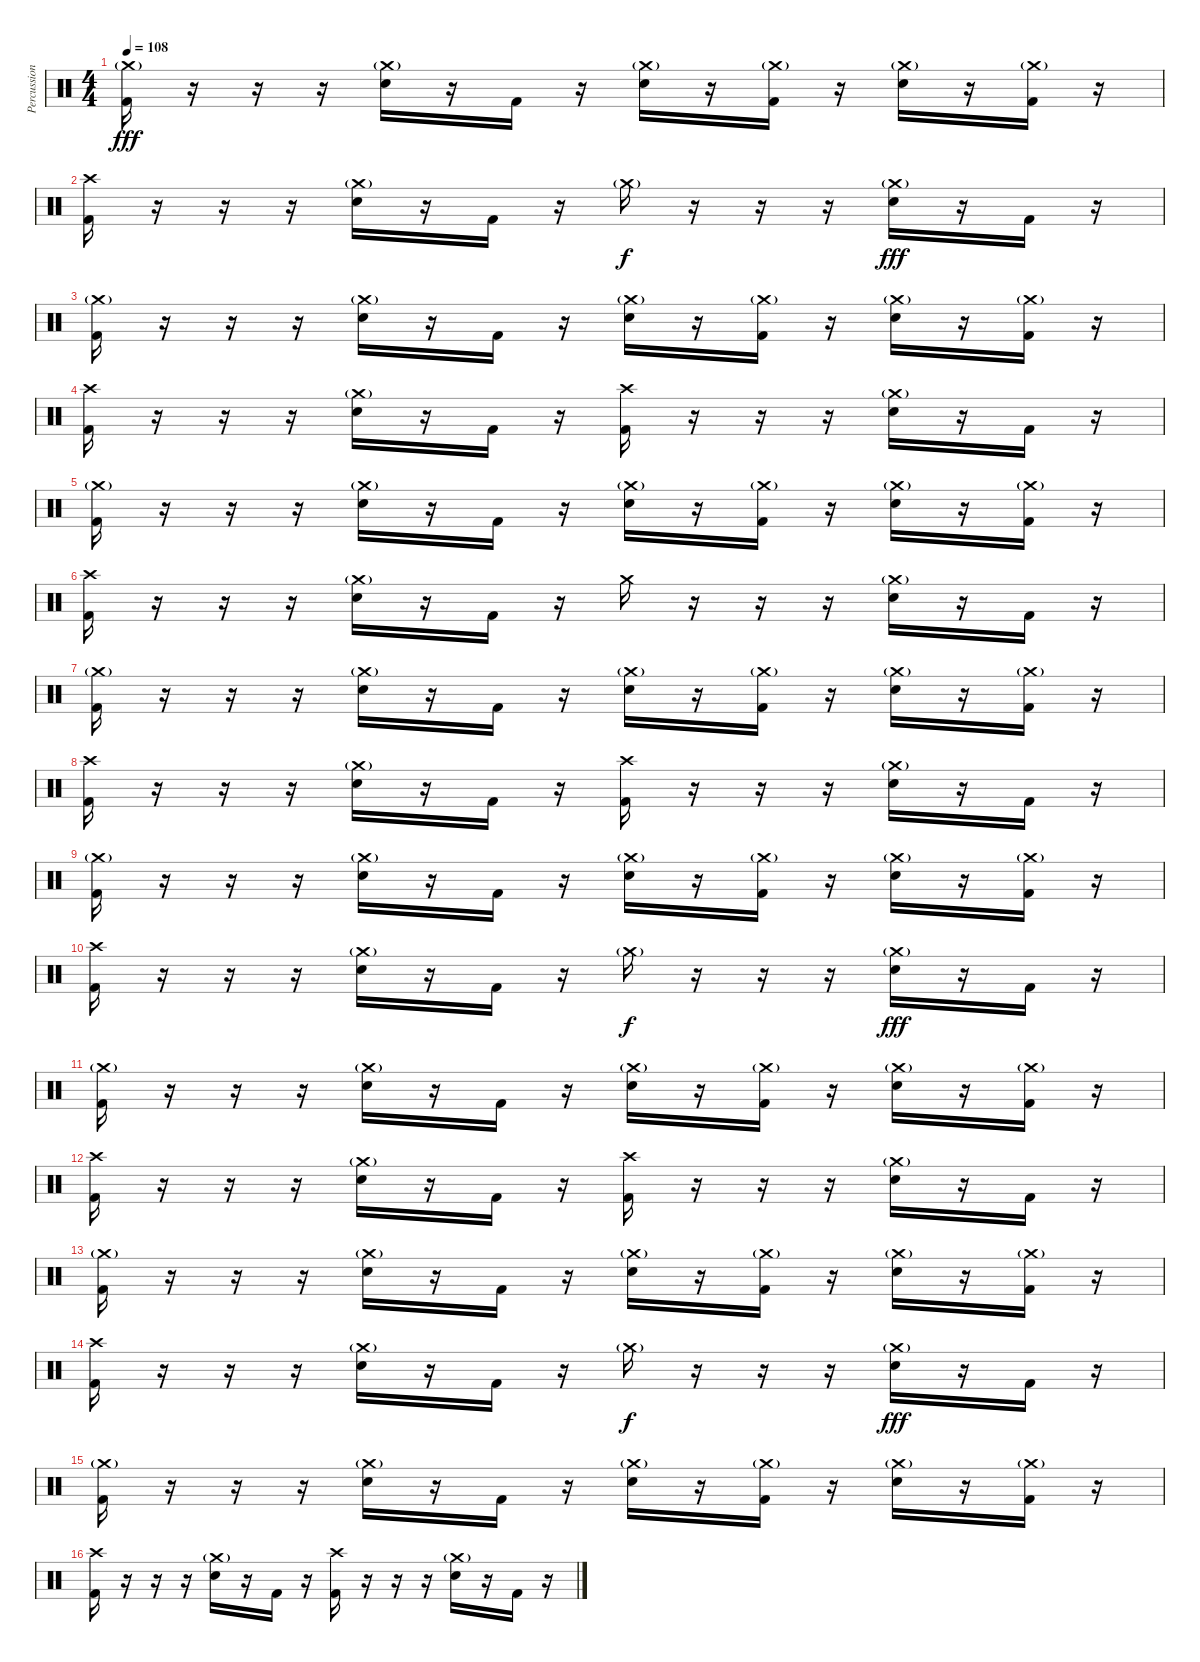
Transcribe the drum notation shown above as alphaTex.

\track ("Percussion" "Percussion") {instrument percussion}
\staff {score}
\articulation defaults
\ts (4 4)
\tempo 108
\clef neutral
\ks c
("Crash medium (hit)"{g} "Kick (hit) 2").16{dy fff} r.16 r.16 r.16 ("Crash medium (hit)"{g} "Electric Snare (hit)").16 r.16 "Kick (hit) 2".16 r.16 ("Crash medium (hit)"{g} "Electric Snare (hit)").16 r.16 ("Crash medium (hit)"{g} "Kick (hit) 2").16 r.16 ("Crash medium (hit)"{g} "Electric Snare (hit)").16 r.16 ("Crash medium (hit)"{g} "Kick (hit) 2").16 r.16 |
("Crash high (hit)" "Kick (hit) 2").16 r.16 r.16 r.16 ("Crash medium (hit)"{g} "Electric Snare (hit)").16 r.16 "Kick (hit) 2".16 r.16 "Crash medium (hit)"{g}.16{dy f} r.16 r.16 r.16 ("Crash medium (hit)"{g} "Electric Snare (hit)").16{dy fff} r.16 "Kick (hit) 2".16 r.16 |
("Crash medium (hit)"{g} "Kick (hit) 2").16 r.16 r.16 r.16 ("Crash medium (hit)"{g} "Electric Snare (hit)").16 r.16 "Kick (hit) 2".16 r.16 ("Crash medium (hit)"{g} "Electric Snare (hit)").16 r.16 ("Crash medium (hit)"{g} "Kick (hit) 2").16 r.16 ("Crash medium (hit)"{g} "Electric Snare (hit)").16 r.16 ("Crash medium (hit)"{g} "Kick (hit) 2").16 r.16 |
("Crash high (hit)" "Kick (hit) 2").16 r.16 r.16 r.16 ("Crash medium (hit)"{g} "Electric Snare (hit)").16 r.16 "Kick (hit) 2".16 r.16 ("Crash high (hit)" "Kick (hit) 2").16 r.16 r.16 r.16 ("Crash medium (hit)"{g} "Electric Snare (hit)").16 r.16 "Kick (hit) 2".16 r.16 |
("Crash medium (hit)"{g} "Kick (hit) 2").16 r.16 r.16 r.16 ("Crash medium (hit)"{g} "Electric Snare (hit)").16 r.16 "Kick (hit) 2".16 r.16 ("Crash medium (hit)"{g} "Electric Snare (hit)").16 r.16 ("Crash medium (hit)"{g} "Kick (hit) 2").16 r.16 ("Crash medium (hit)"{g} "Electric Snare (hit)").16 r.16 ("Crash medium (hit)"{g} "Kick (hit) 2").16 r.16 |
("Crash high (hit)" "Kick (hit) 2").16 r.16 r.16 r.16 ("Crash medium (hit)"{g} "Electric Snare (hit)").16 r.16 "Kick (hit) 2".16 r.16 "Crash medium (hit)".16 r.16 r.16 r.16 ("Crash medium (hit)"{g} "Electric Snare (hit)").16 r.16 "Kick (hit) 2".16 r.16 |
("Crash medium (hit)"{g} "Kick (hit) 2").16 r.16 r.16 r.16 ("Crash medium (hit)"{g} "Electric Snare (hit)").16 r.16 "Kick (hit) 2".16 r.16 ("Crash medium (hit)"{g} "Electric Snare (hit)").16 r.16 ("Crash medium (hit)"{g} "Kick (hit) 2").16 r.16 ("Crash medium (hit)"{g} "Electric Snare (hit)").16 r.16 ("Crash medium (hit)"{g} "Kick (hit) 2").16 r.16 |
("Crash high (hit)" "Kick (hit) 2").16 r.16 r.16 r.16 ("Crash medium (hit)"{g} "Electric Snare (hit)").16 r.16 "Kick (hit) 2".16 r.16 ("Crash high (hit)" "Kick (hit) 2").16 r.16 r.16 r.16 ("Crash medium (hit)"{g} "Electric Snare (hit)").16 r.16 "Kick (hit) 2".16 r.16 |
("Crash medium (hit)"{g} "Kick (hit) 2").16 r.16 r.16 r.16 ("Crash medium (hit)"{g} "Electric Snare (hit)").16 r.16 "Kick (hit) 2".16 r.16 ("Crash medium (hit)"{g} "Electric Snare (hit)").16 r.16 ("Crash medium (hit)"{g} "Kick (hit) 2").16 r.16 ("Crash medium (hit)"{g} "Electric Snare (hit)").16 r.16 ("Crash medium (hit)"{g} "Kick (hit) 2").16 r.16 |
("Crash high (hit)" "Kick (hit) 2").16 r.16 r.16 r.16 ("Crash medium (hit)"{g} "Electric Snare (hit)").16 r.16 "Kick (hit) 2".16 r.16 "Crash medium (hit)"{g}.16{dy f} r.16 r.16 r.16 ("Crash medium (hit)"{g} "Electric Snare (hit)").16{dy fff} r.16 "Kick (hit) 2".16 r.16 |
("Crash medium (hit)"{g} "Kick (hit) 2").16 r.16 r.16 r.16 ("Crash medium (hit)"{g} "Electric Snare (hit)").16 r.16 "Kick (hit) 2".16 r.16 ("Crash medium (hit)"{g} "Electric Snare (hit)").16 r.16 ("Crash medium (hit)"{g} "Kick (hit) 2").16 r.16 ("Crash medium (hit)"{g} "Electric Snare (hit)").16 r.16 ("Crash medium (hit)"{g} "Kick (hit) 2").16 r.16 |
("Crash high (hit)" "Kick (hit) 2").16 r.16 r.16 r.16 ("Crash medium (hit)"{g} "Electric Snare (hit)").16 r.16 "Kick (hit) 2".16 r.16 ("Crash high (hit)" "Kick (hit) 2").16 r.16 r.16 r.16 ("Crash medium (hit)"{g} "Electric Snare (hit)").16 r.16 "Kick (hit) 2".16 r.16 |
("Crash medium (hit)"{g} "Kick (hit) 2").16 r.16 r.16 r.16 ("Crash medium (hit)"{g} "Electric Snare (hit)").16 r.16 "Kick (hit) 2".16 r.16 ("Crash medium (hit)"{g} "Electric Snare (hit)").16 r.16 ("Crash medium (hit)"{g} "Kick (hit) 2").16 r.16 ("Crash medium (hit)"{g} "Electric Snare (hit)").16 r.16 ("Crash medium (hit)"{g} "Kick (hit) 2").16 r.16 |
("Crash high (hit)" "Kick (hit) 2").16 r.16 r.16 r.16 ("Crash medium (hit)"{g} "Electric Snare (hit)").16 r.16 "Kick (hit) 2".16 r.16 "Crash medium (hit)"{g}.16{dy f} r.16 r.16 r.16 ("Crash medium (hit)"{g} "Electric Snare (hit)").16{dy fff} r.16 "Kick (hit) 2".16 r.16 |
("Crash medium (hit)"{g} "Kick (hit) 2").16 r.16 r.16 r.16 ("Crash medium (hit)"{g} "Electric Snare (hit)").16 r.16 "Kick (hit) 2".16 r.16 ("Crash medium (hit)"{g} "Electric Snare (hit)").16 r.16 ("Crash medium (hit)"{g} "Kick (hit) 2").16 r.16 ("Crash medium (hit)"{g} "Electric Snare (hit)").16 r.16 ("Crash medium (hit)"{g} "Kick (hit) 2").16 r.16 |
("Crash high (hit)" "Kick (hit) 2").16 r.16 r.16 r.16 ("Crash medium (hit)"{g} "Electric Snare (hit)").16 r.16 "Kick (hit) 2".16 r.16 ("Crash high (hit)" "Kick (hit) 2").16 r.16 r.16 r.16 ("Crash medium (hit)"{g} "Electric Snare (hit)").16 r.16 "Kick (hit) 2".16 r.16
